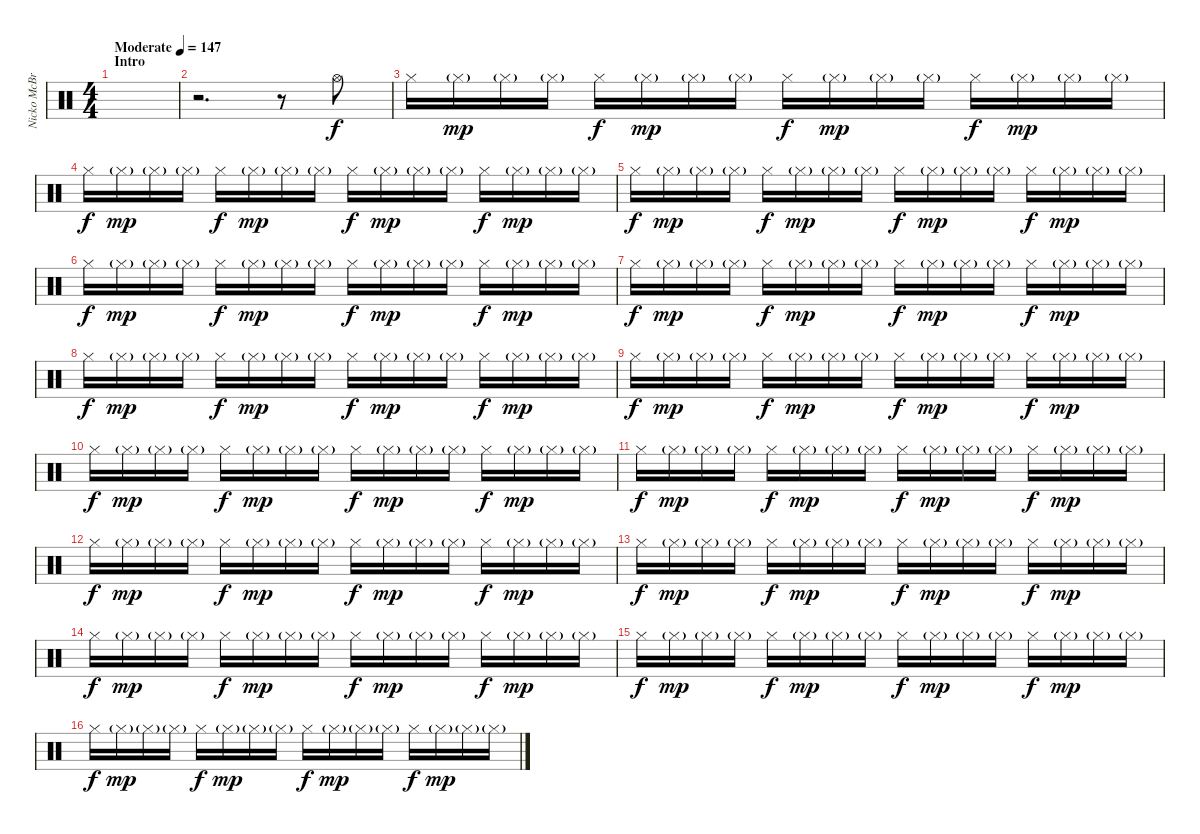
\track ("Nicko McBrain" "Nicko McBr") {instrument percussion}
\staff {score}
\articulation defaults
\ts (4 4)
\section ("" "Intro")
\tempo (147 "Moderate")
\clef neutral
\ks c
|
r.2{d} r.8 "Hi-Hat (open)".8 |
"Hi-Hat (closed)".16 "Hi-Hat (closed)"{g}.16{dy mp} "Hi-Hat (closed)"{g}.16 "Hi-Hat (closed)"{g}.16 "Hi-Hat (closed)".16{dy f} "Hi-Hat (closed)"{g}.16{dy mp} "Hi-Hat (closed)"{g}.16 "Hi-Hat (closed)"{g}.16 "Hi-Hat (closed)".16{dy f} "Hi-Hat (closed)"{g}.16{dy mp} "Hi-Hat (closed)"{g}.16 "Hi-Hat (closed)"{g}.16 "Hi-Hat (closed)".16{dy f} "Hi-Hat (closed)"{g}.16{dy mp} "Hi-Hat (closed)"{g}.16 "Hi-Hat (closed)"{g}.16 |
"Hi-Hat (closed)".16{dy f} "Hi-Hat (closed)"{g}.16{dy mp} "Hi-Hat (closed)"{g}.16 "Hi-Hat (closed)"{g}.16 "Hi-Hat (closed)".16{dy f} "Hi-Hat (closed)"{g}.16{dy mp} "Hi-Hat (closed)"{g}.16 "Hi-Hat (closed)"{g}.16 "Hi-Hat (closed)".16{dy f} "Hi-Hat (closed)"{g}.16{dy mp} "Hi-Hat (closed)"{g}.16 "Hi-Hat (closed)"{g}.16 "Hi-Hat (closed)".16{dy f} "Hi-Hat (closed)"{g}.16{dy mp} "Hi-Hat (closed)"{g}.16 "Hi-Hat (closed)"{g}.16 |
"Hi-Hat (closed)".16{dy f} "Hi-Hat (closed)"{g}.16{dy mp} "Hi-Hat (closed)"{g}.16 "Hi-Hat (closed)"{g}.16 "Hi-Hat (closed)".16{dy f} "Hi-Hat (closed)"{g}.16{dy mp} "Hi-Hat (closed)"{g}.16 "Hi-Hat (closed)"{g}.16 "Hi-Hat (closed)".16{dy f} "Hi-Hat (closed)"{g}.16{dy mp} "Hi-Hat (closed)"{g}.16 "Hi-Hat (closed)"{g}.16 "Hi-Hat (closed)".16{dy f} "Hi-Hat (closed)"{g}.16{dy mp} "Hi-Hat (closed)"{g}.16 "Hi-Hat (closed)"{g}.16 |
"Hi-Hat (closed)".16{dy f} "Hi-Hat (closed)"{g}.16{dy mp} "Hi-Hat (closed)"{g}.16 "Hi-Hat (closed)"{g}.16 "Hi-Hat (closed)".16{dy f} "Hi-Hat (closed)"{g}.16{dy mp} "Hi-Hat (closed)"{g}.16 "Hi-Hat (closed)"{g}.16 "Hi-Hat (closed)".16{dy f} "Hi-Hat (closed)"{g}.16{dy mp} "Hi-Hat (closed)"{g}.16 "Hi-Hat (closed)"{g}.16 "Hi-Hat (closed)".16{dy f} "Hi-Hat (closed)"{g}.16{dy mp} "Hi-Hat (closed)"{g}.16 "Hi-Hat (closed)"{g}.16 |
"Hi-Hat (closed)".16{dy f} "Hi-Hat (closed)"{g}.16{dy mp} "Hi-Hat (closed)"{g}.16 "Hi-Hat (closed)"{g}.16 "Hi-Hat (closed)".16{dy f} "Hi-Hat (closed)"{g}.16{dy mp} "Hi-Hat (closed)"{g}.16 "Hi-Hat (closed)"{g}.16 "Hi-Hat (closed)".16{dy f} "Hi-Hat (closed)"{g}.16{dy mp} "Hi-Hat (closed)"{g}.16 "Hi-Hat (closed)"{g}.16 "Hi-Hat (closed)".16{dy f} "Hi-Hat (closed)"{g}.16{dy mp} "Hi-Hat (closed)"{g}.16 "Hi-Hat (closed)"{g}.16 |
"Hi-Hat (closed)".16{dy f} "Hi-Hat (closed)"{g}.16{dy mp} "Hi-Hat (closed)"{g}.16 "Hi-Hat (closed)"{g}.16 "Hi-Hat (closed)".16{dy f} "Hi-Hat (closed)"{g}.16{dy mp} "Hi-Hat (closed)"{g}.16 "Hi-Hat (closed)"{g}.16 "Hi-Hat (closed)".16{dy f} "Hi-Hat (closed)"{g}.16{dy mp} "Hi-Hat (closed)"{g}.16 "Hi-Hat (closed)"{g}.16 "Hi-Hat (closed)".16{dy f} "Hi-Hat (closed)"{g}.16{dy mp} "Hi-Hat (closed)"{g}.16 "Hi-Hat (closed)"{g}.16 |
"Hi-Hat (closed)".16{dy f} "Hi-Hat (closed)"{g}.16{dy mp} "Hi-Hat (closed)"{g}.16 "Hi-Hat (closed)"{g}.16 "Hi-Hat (closed)".16{dy f} "Hi-Hat (closed)"{g}.16{dy mp} "Hi-Hat (closed)"{g}.16 "Hi-Hat (closed)"{g}.16 "Hi-Hat (closed)".16{dy f} "Hi-Hat (closed)"{g}.16{dy mp} "Hi-Hat (closed)"{g}.16 "Hi-Hat (closed)"{g}.16 "Hi-Hat (closed)".16{dy f} "Hi-Hat (closed)"{g}.16{dy mp} "Hi-Hat (closed)"{g}.16 "Hi-Hat (closed)"{g}.16 |
"Hi-Hat (closed)".16{dy f} "Hi-Hat (closed)"{g}.16{dy mp} "Hi-Hat (closed)"{g}.16 "Hi-Hat (closed)"{g}.16 "Hi-Hat (closed)".16{dy f} "Hi-Hat (closed)"{g}.16{dy mp} "Hi-Hat (closed)"{g}.16 "Hi-Hat (closed)"{g}.16 "Hi-Hat (closed)".16{dy f} "Hi-Hat (closed)"{g}.16{dy mp} "Hi-Hat (closed)"{g}.16 "Hi-Hat (closed)"{g}.16 "Hi-Hat (closed)".16{dy f} "Hi-Hat (closed)"{g}.16{dy mp} "Hi-Hat (closed)"{g}.16 "Hi-Hat (closed)"{g}.16 |
"Hi-Hat (closed)".16{dy f} "Hi-Hat (closed)"{g}.16{dy mp} "Hi-Hat (closed)"{g}.16 "Hi-Hat (closed)"{g}.16 "Hi-Hat (closed)".16{dy f} "Hi-Hat (closed)"{g}.16{dy mp} "Hi-Hat (closed)"{g}.16 "Hi-Hat (closed)"{g}.16 "Hi-Hat (closed)".16{dy f} "Hi-Hat (closed)"{g}.16{dy mp} "Hi-Hat (closed)"{g}.16 "Hi-Hat (closed)"{g}.16 "Hi-Hat (closed)".16{dy f} "Hi-Hat (closed)"{g}.16{dy mp} "Hi-Hat (closed)"{g}.16 "Hi-Hat (closed)"{g}.16 |
"Hi-Hat (closed)".16{dy f} "Hi-Hat (closed)"{g}.16{dy mp} "Hi-Hat (closed)"{g}.16 "Hi-Hat (closed)"{g}.16 "Hi-Hat (closed)".16{dy f} "Hi-Hat (closed)"{g}.16{dy mp} "Hi-Hat (closed)"{g}.16 "Hi-Hat (closed)"{g}.16 "Hi-Hat (closed)".16{dy f} "Hi-Hat (closed)"{g}.16{dy mp} "Hi-Hat (closed)"{g}.16 "Hi-Hat (closed)"{g}.16 "Hi-Hat (closed)".16{dy f} "Hi-Hat (closed)"{g}.16{dy mp} "Hi-Hat (closed)"{g}.16 "Hi-Hat (closed)"{g}.16 |
"Hi-Hat (closed)".16{dy f} "Hi-Hat (closed)"{g}.16{dy mp} "Hi-Hat (closed)"{g}.16 "Hi-Hat (closed)"{g}.16 "Hi-Hat (closed)".16{dy f} "Hi-Hat (closed)"{g}.16{dy mp} "Hi-Hat (closed)"{g}.16 "Hi-Hat (closed)"{g}.16 "Hi-Hat (closed)".16{dy f} "Hi-Hat (closed)"{g}.16{dy mp} "Hi-Hat (closed)"{g}.16 "Hi-Hat (closed)"{g}.16 "Hi-Hat (closed)".16{dy f} "Hi-Hat (closed)"{g}.16{dy mp} "Hi-Hat (closed)"{g}.16 "Hi-Hat (closed)"{g}.16 |
"Hi-Hat (closed)".16{dy f} "Hi-Hat (closed)"{g}.16{dy mp} "Hi-Hat (closed)"{g}.16 "Hi-Hat (closed)"{g}.16 "Hi-Hat (closed)".16{dy f} "Hi-Hat (closed)"{g}.16{dy mp} "Hi-Hat (closed)"{g}.16 "Hi-Hat (closed)"{g}.16 "Hi-Hat (closed)".16{dy f} "Hi-Hat (closed)"{g}.16{dy mp} "Hi-Hat (closed)"{g}.16 "Hi-Hat (closed)"{g}.16 "Hi-Hat (closed)".16{dy f} "Hi-Hat (closed)"{g}.16{dy mp} "Hi-Hat (closed)"{g}.16 "Hi-Hat (closed)"{g}.16 |
"Hi-Hat (closed)".16{dy f} "Hi-Hat (closed)"{g}.16{dy mp} "Hi-Hat (closed)"{g}.16 "Hi-Hat (closed)"{g}.16 "Hi-Hat (closed)".16{dy f} "Hi-Hat (closed)"{g}.16{dy mp} "Hi-Hat (closed)"{g}.16 "Hi-Hat (closed)"{g}.16 "Hi-Hat (closed)".16{dy f} "Hi-Hat (closed)"{g}.16{dy mp} "Hi-Hat (closed)"{g}.16 "Hi-Hat (closed)"{g}.16 "Hi-Hat (closed)".16{dy f} "Hi-Hat (closed)"{g}.16{dy mp} "Hi-Hat (closed)"{g}.16 "Hi-Hat (closed)"{g}.16 |
"Hi-Hat (closed)".16{dy f} "Hi-Hat (closed)"{g}.16{dy mp} "Hi-Hat (closed)"{g}.16 "Hi-Hat (closed)"{g}.16 "Hi-Hat (closed)".16{dy f} "Hi-Hat (closed)"{g}.16{dy mp} "Hi-Hat (closed)"{g}.16 "Hi-Hat (closed)"{g}.16 "Hi-Hat (closed)".16{dy f} "Hi-Hat (closed)"{g}.16{dy mp} "Hi-Hat (closed)"{g}.16 "Hi-Hat (closed)"{g}.16 "Hi-Hat (closed)".16{dy f} "Hi-Hat (closed)"{g}.16{dy mp} "Hi-Hat (closed)"{g}.16 "Hi-Hat (closed)"{g}.16
